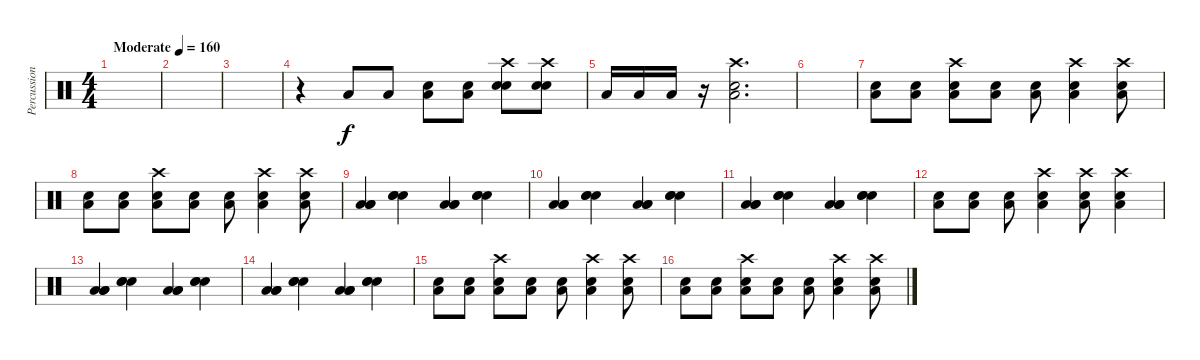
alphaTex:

\track ("Percussion" "Percussion") {instrument percussion}
\staff {score}
\articulation defaults
\ts (4 4)
\tempo (160 "Moderate")
\clef neutral
\ks c
|
|
|
r.4 "Low Tom (hit)".8 "Low Tom (hit)".8 ("Low Tom (hit)" "Electric Snare (hit)").8 ("Low Tom (hit)" "Electric Snare (hit)").8 ("Crash high (hit)" "Electric Snare (hit)" "Electric Snare (hit)").8 ("Crash high (hit)" "Electric Snare (hit)" "Electric Snare (hit)").8 |
"Low Tom (hit)".16 "Low Tom (hit)".16 "Low Tom (hit)".16 r.16 ("Crash high (hit)" "Electric Snare (hit)" "Low Tom (hit)").2{d} |
|
("Low Tom (hit)" "Electric Snare (hit)").8 ("Low Tom (hit)" "Electric Snare (hit)").8 ("Crash high (hit)" "Electric Snare (hit)" "Low Tom (hit)").8 ("Low Tom (hit)" "Electric Snare (hit)").8 ("Low Tom (hit)" "Electric Snare (hit)").8 ("Crash high (hit)" "Electric Snare (hit)" "Low Tom (hit)").4 ("Crash high (hit)" "Electric Snare (hit)" "Low Tom (hit)").8 |
("Low Tom (hit)" "Electric Snare (hit)").8 ("Low Tom (hit)" "Electric Snare (hit)").8 ("Crash high (hit)" "Electric Snare (hit)" "Low Tom (hit)").8 ("Low Tom (hit)" "Electric Snare (hit)").8 ("Low Tom (hit)" "Electric Snare (hit)").8 ("Crash high (hit)" "Electric Snare (hit)" "Low Tom (hit)").4 ("Crash high (hit)" "Electric Snare (hit)" "Low Tom (hit)").8 |
("Low Tom (hit)" "Low Tom (hit)" "Low Tom (hit)").4 ("Electric Snare (hit)" "Electric Snare (hit)" "Electric Snare (hit)").4 ("Low Tom (hit)" "Low Tom (hit)" "Low Tom (hit)").4 ("Electric Snare (hit)" "Electric Snare (hit)" "Electric Snare (hit)").4 |
("Low Tom (hit)" "Low Tom (hit)" "Low Tom (hit)").4 ("Electric Snare (hit)" "Electric Snare (hit)" "Electric Snare (hit)").4 ("Low Tom (hit)" "Low Tom (hit)" "Low Tom (hit)").4 ("Electric Snare (hit)" "Electric Snare (hit)" "Electric Snare (hit)").4 |
("Low Tom (hit)" "Low Tom (hit)" "Low Tom (hit)").4 ("Electric Snare (hit)" "Electric Snare (hit)" "Electric Snare (hit)").4 ("Low Tom (hit)" "Low Tom (hit)" "Low Tom (hit)").4 ("Electric Snare (hit)" "Electric Snare (hit)" "Electric Snare (hit)").4 |
("Low Tom (hit)" "Electric Snare (hit)").8 ("Low Tom (hit)" "Electric Snare (hit)").8 ("Low Tom (hit)" "Electric Snare (hit)").8 ("Crash high (hit)" "Low Tom (hit)" "Electric Snare (hit)").4 ("Crash high (hit)" "Low Tom (hit)" "Electric Snare (hit)").8 ("Crash high (hit)" "Low Tom (hit)" "Electric Snare (hit)").4 |
("Low Tom (hit)" "Low Tom (hit)" "Low Tom (hit)").4 ("Electric Snare (hit)" "Electric Snare (hit)" "Electric Snare (hit)").4 ("Low Tom (hit)" "Low Tom (hit)" "Low Tom (hit)").4 ("Electric Snare (hit)" "Electric Snare (hit)" "Electric Snare (hit)").4 |
("Low Tom (hit)" "Low Tom (hit)" "Low Tom (hit)").4 ("Electric Snare (hit)" "Electric Snare (hit)" "Electric Snare (hit)").4 ("Low Tom (hit)" "Low Tom (hit)" "Low Tom (hit)").4 ("Electric Snare (hit)" "Electric Snare (hit)" "Electric Snare (hit)").4 |
("Low Tom (hit)" "Electric Snare (hit)").8 ("Low Tom (hit)" "Electric Snare (hit)").8 ("Crash high (hit)" "Electric Snare (hit)" "Low Tom (hit)").8 ("Low Tom (hit)" "Electric Snare (hit)").8 ("Low Tom (hit)" "Electric Snare (hit)").8 ("Crash high (hit)" "Electric Snare (hit)" "Low Tom (hit)").4 ("Crash high (hit)" "Electric Snare (hit)" "Low Tom (hit)").8 |
("Low Tom (hit)" "Electric Snare (hit)").8 ("Low Tom (hit)" "Electric Snare (hit)").8 ("Crash high (hit)" "Electric Snare (hit)" "Low Tom (hit)").8 ("Low Tom (hit)" "Electric Snare (hit)").8 ("Low Tom (hit)" "Electric Snare (hit)").8 ("Crash high (hit)" "Electric Snare (hit)" "Low Tom (hit)").4 ("Crash high (hit)" "Electric Snare (hit)" "Low Tom (hit)").8
